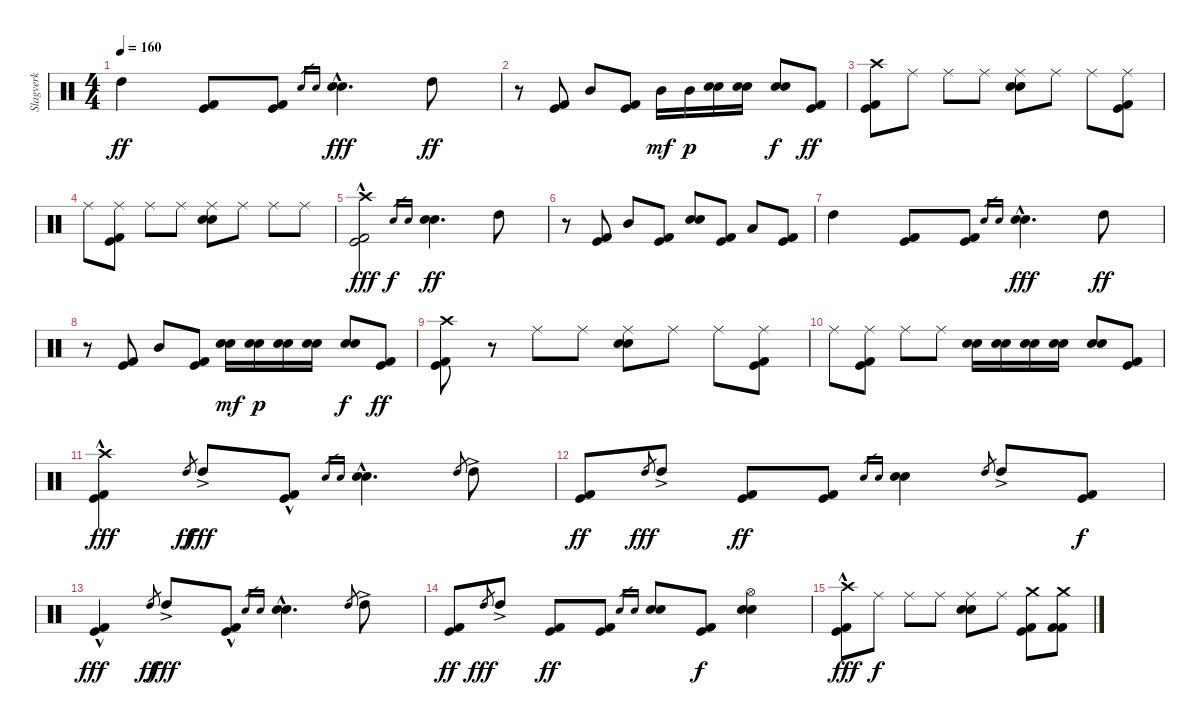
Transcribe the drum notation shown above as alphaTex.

\track ("Slagverk" "Slagverk") {instrument percussion}
\staff {score}
\articulation defaults
\ts (4 4)
\tempo 160
\clef neutral
\ks c "High Tom (hit)".4{dy ff}
("Kick (hit)" "Kick (hit) 2").8 ("Kick (hit)" "Kick (hit) 2").8 "Electric Snare (hit)".16{gr} "Snare (hit) 2".16{gr} ("Electric Snare (hit)"{hac} "Snare (hit) 2"{hac}).4{d dy fff} "High Tom (hit)".8{dy ff} |
r.8 ("Kick (hit)" "Kick (hit) 2").8 "Mid Tom (hit)".8 ("Kick (hit)" "Kick (hit) 2").8 "Mid Tom (hit)".16{dy mf} "Mid Tom (hit)".16{dy p} ("Electric Snare (hit)" "Snare (hit) 2").16 ("Electric Snare (hit)" "Snare (hit) 2").16 ("Electric Snare (hit)" "Snare (hit) 2").8{dy f} ("Kick (hit)" "Kick (hit) 2").8{dy ff} |
("Crash high (hit)" "Kick (hit)" "Kick (hit) 2").8 "Ride (middle)".8 "Ride (middle)".8 "Ride (middle)".8 ("Ride (middle)" "Electric Snare (hit)" "Snare (hit) 2").8 "Ride (middle)".8 "Ride (middle)".8 ("Ride (middle)" "Kick (hit)" "Kick (hit) 2").8 |
"Ride (middle)".8 ("Ride (middle)" "Kick (hit)" "Kick (hit) 2").8 "Ride (middle)".8 "Ride (middle)".8 ("Ride (middle)" "Electric Snare (hit)" "Snare (hit) 2").8 "Ride (middle)".8 "Ride (middle)".8 "Ride (middle)".8 |
("Crash high (hit)" "Kick (hit)"{hac} "Kick (hit) 2"{hac}).2{dy fff} "Electric Snare (hit)".16{gr dy f} "Snare (hit) 2".16{gr} ("Electric Snare (hit)" "Snare (hit) 2").4{d dy ff} "High Tom (hit)".8 |
r.8 ("Kick (hit)" "Kick (hit) 2").8 "Mid Tom (hit)".8 ("Kick (hit)" "Kick (hit) 2").8 ("Electric Snare (hit)" "Snare (hit) 2").8 ("Kick (hit)" "Kick (hit) 2").8 "Low Tom (hit)".8 ("Kick (hit)" "Kick (hit) 2").8 |
"High Tom (hit)".4 ("Kick (hit)" "Kick (hit) 2").8 ("Kick (hit)" "Kick (hit) 2").8 "Electric Snare (hit)".16{gr} "Snare (hit) 2".16{gr} ("Electric Snare (hit)"{hac} "Snare (hit) 2"{hac}).4{d dy fff} "High Tom (hit)".8{dy ff} |
r.8 ("Kick (hit)" "Kick (hit) 2").8 "Mid Tom (hit)".8 ("Kick (hit)" "Kick (hit) 2").8 ("Electric Snare (hit)" "Snare (hit) 2").16{dy mf} ("Electric Snare (hit)" "Snare (hit) 2").16{dy p} ("Electric Snare (hit)" "Snare (hit) 2").16 ("Electric Snare (hit)" "Snare (hit) 2").16 ("Electric Snare (hit)" "Snare (hit) 2").8{dy f} ("Kick (hit)" "Kick (hit) 2").8{dy ff} |
("Crash high (hit)" "Kick (hit)" "Kick (hit) 2").8 r.8 "Ride (middle)".8 "Ride (middle)".8 ("Ride (middle)" "Electric Snare (hit)" "Snare (hit) 2").8 "Ride (middle)".8 "Ride (middle)".8 ("Ride (middle)" "Kick (hit)" "Kick (hit) 2").8 |
"Ride (middle)".8 ("Ride (middle)" "Kick (hit)" "Kick (hit) 2").8 "Ride (middle)".8 "Ride (middle)".8 ("Electric Snare (hit)" "Snare (hit) 2").16 ("Electric Snare (hit)" "Snare (hit) 2").16 ("Electric Snare (hit)" "Snare (hit) 2").16 ("Electric Snare (hit)" "Snare (hit) 2").16 ("Electric Snare (hit)" "Snare (hit) 2").8 ("Kick (hit)" "Kick (hit) 2").8 |
("Crash high (hit)" "Kick (hit)"{hac} "Kick (hit) 2"{hac}).4{dy fff} "High Tom (hit)".8{gr dy ff} "High Tom (hit)"{ac}.8{dy fff} ("Kick (hit)"{hac} "Kick (hit) 2"{hac}).8 "Electric Snare (hit)".16{gr} "Snare (hit) 2".16{gr} ("Electric Snare (hit)"{hac} "Snare (hit) 2"{hac}).4{d} "High Tom (hit)".8{gr} "High Tom (hit)"{ac}.8 |
("Kick (hit)" "Kick (hit) 2").8{dy ff} "High Tom (hit)".8{gr dy fff} "High Tom (hit)"{ac}.8 ("Kick (hit)" "Kick (hit) 2").8{dy ff} ("Kick (hit)" "Kick (hit) 2").8 "Electric Snare (hit)".16{gr} "Snare (hit) 2".16{gr} ("Electric Snare (hit)" "Snare (hit) 2").4 "High Tom (hit)".8{gr} "High Tom (hit)"{ac}.8 ("Kick (hit)" "Kick (hit) 2").8{dy f} |
("Kick (hit)"{hac} "Kick (hit) 2"{hac}).4{dy fff} "High Tom (hit)".8{gr dy ff} "High Tom (hit)"{ac}.8{dy fff} ("Kick (hit)"{hac} "Kick (hit) 2"{hac}).8 "Electric Snare (hit)".16{gr} "Snare (hit) 2".16{gr} ("Electric Snare (hit)"{hac} "Snare (hit) 2"{hac}).4{d} "High Tom (hit)".8{gr} "High Tom (hit)"{ac}.8 |
("Kick (hit)" "Kick (hit) 2").8{dy ff} "High Tom (hit)".8{gr dy fff} "High Tom (hit)"{ac}.8 ("Kick (hit)" "Kick (hit) 2").8{dy ff} ("Kick (hit)" "Kick (hit) 2").8 "Electric Snare (hit)".16{gr} "Snare (hit) 2".16{gr} ("Electric Snare (hit)" "Snare (hit) 2").8 ("Kick (hit)" "Kick (hit) 2").8{dy f} ("Hi-Hat (open)" "Electric Snare (hit)" "Snare (hit) 2").4 |
("Crash high (hit)" "Kick (hit)"{hac} "Kick (hit) 2"{hac}).8{dy fff} "Ride (middle)".8{dy f} "Ride (middle)".8 "Ride (middle)".8 ("Ride (middle)" "Electric Snare (hit)" "Snare (hit) 2").8 "Ride (middle)".8 ("Crash medium (hit)" "Kick (hit)" "Kick (hit) 2").8 ("Crash medium (hit)" "Kick (hit) 2" "Kick (hit) 2").8
